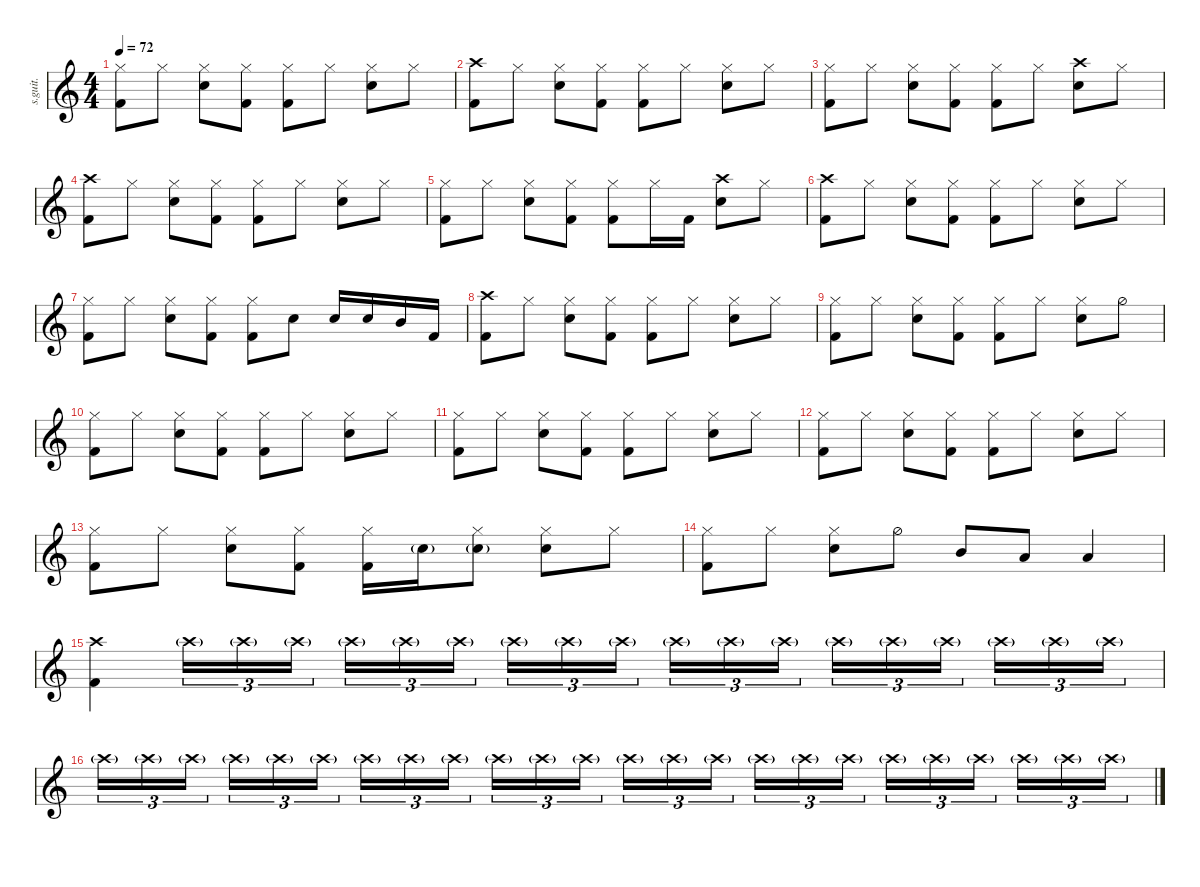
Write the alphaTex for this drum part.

\defaultSystemsLayout 4
\hideDynamics
\bracketExtendMode nobrackets
\track ("Ian Thomas" "s.guit.") {instrument percussion}
\staff {score}
\articulation defaults
\ts (4 4)
\tempo 72
\clef g2
\ks c
("Hi-Hat (closed)" "Kick (hit) 2").8{lyrics (0 "") lyrics (1 "") lyrics (2 "") lyrics (3 "") lyrics (4 "") dy f} "Hi-Hat (closed)".8{lyrics (0 "") lyrics (1 "") lyrics (2 "") lyrics (3 "") lyrics (4 "")} ("Hi-Hat (closed)" "Snare (hit) 2").8{lyrics (0 "") lyrics (1 "") lyrics (2 "") lyrics (3 "") lyrics (4 "")} ("Hi-Hat (closed)" "Kick (hit) 2").8{lyrics (0 "") lyrics (1 "") lyrics (2 "") lyrics (3 "") lyrics (4 "")} ("Hi-Hat (closed)" "Kick (hit) 2").8{lyrics (0 "") lyrics (1 "") lyrics (2 "") lyrics (3 "") lyrics (4 "")} "Hi-Hat (closed)".8{lyrics (0 "") lyrics (1 "") lyrics (2 "") lyrics (3 "") lyrics (4 "")} ("Hi-Hat (closed)" "Snare (hit) 2").8{lyrics (0 "") lyrics (1 "") lyrics (2 "") lyrics (3 "") lyrics (4 "")} "Hi-Hat (closed)".8{lyrics (0 "") lyrics (1 "") lyrics (2 "") lyrics (3 "") lyrics (4 "")} |
("Crash high (hit)" "Kick (hit) 2").8{lyrics (0 "") lyrics (1 "") lyrics (2 "") lyrics (3 "") lyrics (4 "")} "Hi-Hat (closed)".8{lyrics (0 "") lyrics (1 "") lyrics (2 "") lyrics (3 "") lyrics (4 "")} ("Hi-Hat (closed)" "Snare (hit) 2").8{lyrics (0 "") lyrics (1 "") lyrics (2 "") lyrics (3 "") lyrics (4 "")} ("Hi-Hat (closed)" "Kick (hit) 2").8{lyrics (0 "") lyrics (1 "") lyrics (2 "") lyrics (3 "") lyrics (4 "")} ("Hi-Hat (closed)" "Kick (hit) 2").8{lyrics (0 "") lyrics (1 "") lyrics (2 "") lyrics (3 "") lyrics (4 "")} "Hi-Hat (closed)".8{lyrics (0 "") lyrics (1 "") lyrics (2 "") lyrics (3 "") lyrics (4 "")} ("Hi-Hat (closed)" "Snare (hit) 2").8{lyrics (0 "") lyrics (1 "") lyrics (2 "") lyrics (3 "") lyrics (4 "")} "Hi-Hat (closed)".8{lyrics (0 "") lyrics (1 "") lyrics (2 "") lyrics (3 "") lyrics (4 "")} |
("Hi-Hat (closed)" "Kick (hit) 2").8{lyrics (0 "") lyrics (1 "") lyrics (2 "") lyrics (3 "") lyrics (4 "")} "Hi-Hat (closed)".8{lyrics (0 "") lyrics (1 "") lyrics (2 "") lyrics (3 "") lyrics (4 "")} ("Hi-Hat (closed)" "Snare (hit) 2").8{lyrics (0 "") lyrics (1 "") lyrics (2 "") lyrics (3 "") lyrics (4 "")} ("Hi-Hat (closed)" "Kick (hit) 2").8{lyrics (0 "") lyrics (1 "") lyrics (2 "") lyrics (3 "") lyrics (4 "")} ("Hi-Hat (closed)" "Kick (hit) 2").8{lyrics (0 "") lyrics (1 "") lyrics (2 "") lyrics (3 "") lyrics (4 "")} "Hi-Hat (closed)".8{lyrics (0 "") lyrics (1 "") lyrics (2 "") lyrics (3 "") lyrics (4 "")} ("Crash high (hit)" "Snare (hit) 2").8{lyrics (0 "") lyrics (1 "") lyrics (2 "") lyrics (3 "") lyrics (4 "")} "Hi-Hat (closed)".8{lyrics (0 "") lyrics (1 "") lyrics (2 "") lyrics (3 "") lyrics (4 "")} |
("Crash high (hit)" "Kick (hit) 2").8{lyrics (0 "") lyrics (1 "") lyrics (2 "") lyrics (3 "") lyrics (4 "")} "Hi-Hat (closed)".8{lyrics (0 "") lyrics (1 "") lyrics (2 "") lyrics (3 "") lyrics (4 "")} ("Hi-Hat (closed)" "Snare (hit) 2").8{lyrics (0 "") lyrics (1 "") lyrics (2 "") lyrics (3 "") lyrics (4 "")} ("Hi-Hat (closed)" "Kick (hit) 2").8{lyrics (0 "") lyrics (1 "") lyrics (2 "") lyrics (3 "") lyrics (4 "")} ("Hi-Hat (closed)" "Kick (hit) 2").8{lyrics (0 "") lyrics (1 "") lyrics (2 "") lyrics (3 "") lyrics (4 "")} "Hi-Hat (closed)".8{lyrics (0 "") lyrics (1 "") lyrics (2 "") lyrics (3 "") lyrics (4 "")} ("Hi-Hat (closed)" "Snare (hit) 2").8{lyrics (0 "") lyrics (1 "") lyrics (2 "") lyrics (3 "") lyrics (4 "")} "Hi-Hat (closed)".8{lyrics (0 "") lyrics (1 "") lyrics (2 "") lyrics (3 "") lyrics (4 "")} |
("Hi-Hat (closed)" "Kick (hit) 2").8{lyrics (0 "") lyrics (1 "") lyrics (2 "") lyrics (3 "") lyrics (4 "")} "Hi-Hat (closed)".8{lyrics (0 "") lyrics (1 "") lyrics (2 "") lyrics (3 "") lyrics (4 "")} ("Hi-Hat (closed)" "Snare (hit) 2").8{lyrics (0 "") lyrics (1 "") lyrics (2 "") lyrics (3 "") lyrics (4 "")} ("Hi-Hat (closed)" "Kick (hit) 2").8{lyrics (0 "") lyrics (1 "") lyrics (2 "") lyrics (3 "") lyrics (4 "")} ("Hi-Hat (closed)" "Kick (hit) 2").8{lyrics (0 "") lyrics (1 "") lyrics (2 "") lyrics (3 "") lyrics (4 "")} "Hi-Hat (closed)".16{lyrics (0 "") lyrics (1 "") lyrics (2 "") lyrics (3 "") lyrics (4 "")} "Kick (hit) 2".16{lyrics (0 "") lyrics (1 "") lyrics (2 "") lyrics (3 "") lyrics (4 "")} ("Crash high (hit)" "Snare (hit) 2").8{lyrics (0 "") lyrics (1 "") lyrics (2 "") lyrics (3 "") lyrics (4 "")} "Hi-Hat (closed)".8{lyrics (0 "") lyrics (1 "") lyrics (2 "") lyrics (3 "") lyrics (4 "")} |
("Crash high (hit)" "Kick (hit) 2").8{lyrics (0 "") lyrics (1 "") lyrics (2 "") lyrics (3 "") lyrics (4 "")} "Hi-Hat (closed)".8{lyrics (0 "") lyrics (1 "") lyrics (2 "") lyrics (3 "") lyrics (4 "")} ("Hi-Hat (closed)" "Snare (hit) 2").8{lyrics (0 "") lyrics (1 "") lyrics (2 "") lyrics (3 "") lyrics (4 "")} ("Hi-Hat (closed)" "Kick (hit) 2").8{lyrics (0 "") lyrics (1 "") lyrics (2 "") lyrics (3 "") lyrics (4 "")} ("Hi-Hat (closed)" "Kick (hit) 2").8{lyrics (0 "") lyrics (1 "") lyrics (2 "") lyrics (3 "") lyrics (4 "")} "Hi-Hat (closed)".8{lyrics (0 "") lyrics (1 "") lyrics (2 "") lyrics (3 "") lyrics (4 "")} ("Hi-Hat (closed)" "Snare (hit) 2").8{lyrics (0 "") lyrics (1 "") lyrics (2 "") lyrics (3 "") lyrics (4 "")} "Hi-Hat (closed)".8{lyrics (0 "") lyrics (1 "") lyrics (2 "") lyrics (3 "") lyrics (4 "")} |
("Hi-Hat (closed)" "Kick (hit) 2").8{lyrics (0 "") lyrics (1 "") lyrics (2 "") lyrics (3 "") lyrics (4 "")} "Hi-Hat (closed)".8{lyrics (0 "") lyrics (1 "") lyrics (2 "") lyrics (3 "") lyrics (4 "")} ("Hi-Hat (closed)" "Snare (hit) 2").8{lyrics (0 "") lyrics (1 "") lyrics (2 "") lyrics (3 "") lyrics (4 "")} ("Hi-Hat (closed)" "Kick (hit) 2").8{lyrics (0 "") lyrics (1 "") lyrics (2 "") lyrics (3 "") lyrics (4 "")} ("Hi-Hat (closed)" "Kick (hit) 2").8{lyrics (0 "") lyrics (1 "") lyrics (2 "") lyrics (3 "") lyrics (4 "")} "Snare (hit) 2".8{lyrics (0 "") lyrics (1 "") lyrics (2 "") lyrics (3 "") lyrics (4 "")} "Snare (hit) 2".16{lyrics (0 "") lyrics (1 "") lyrics (2 "") lyrics (3 "") lyrics (4 "")} "Snare (hit) 2".16{lyrics (0 "") lyrics (1 "") lyrics (2 "") lyrics (3 "") lyrics (4 "")} "Mid Tom (hit)".16{lyrics (0 "") lyrics (1 "") lyrics (2 "") lyrics (3 "") lyrics (4 "")} "Kick (hit) 2".16{lyrics (0 "") lyrics (1 "") lyrics (2 "") lyrics (3 "") lyrics (4 "")} |
("Crash high (hit)" "Kick (hit) 2").8{lyrics (0 "") lyrics (1 "") lyrics (2 "") lyrics (3 "") lyrics (4 "")} "Hi-Hat (closed)".8{lyrics (0 "") lyrics (1 "") lyrics (2 "") lyrics (3 "") lyrics (4 "")} ("Hi-Hat (closed)" "Snare (hit) 2").8{lyrics (0 "") lyrics (1 "") lyrics (2 "") lyrics (3 "") lyrics (4 "")} ("Hi-Hat (closed)" "Kick (hit) 2").8{lyrics (0 "") lyrics (1 "") lyrics (2 "") lyrics (3 "") lyrics (4 "")} ("Hi-Hat (closed)" "Kick (hit) 2").8{lyrics (0 "") lyrics (1 "") lyrics (2 "") lyrics (3 "") lyrics (4 "")} "Hi-Hat (closed)".8{lyrics (0 "") lyrics (1 "") lyrics (2 "") lyrics (3 "") lyrics (4 "")} ("Hi-Hat (closed)" "Snare (hit) 2").8{lyrics (0 "") lyrics (1 "") lyrics (2 "") lyrics (3 "") lyrics (4 "")} "Hi-Hat (closed)".8{lyrics (0 "") lyrics (1 "") lyrics (2 "") lyrics (3 "") lyrics (4 "")} |
("Hi-Hat (closed)" "Kick (hit) 2").8{lyrics (0 "") lyrics (1 "") lyrics (2 "") lyrics (3 "") lyrics (4 "")} "Hi-Hat (closed)".8{lyrics (0 "") lyrics (1 "") lyrics (2 "") lyrics (3 "") lyrics (4 "")} ("Hi-Hat (closed)" "Snare (hit) 2").8{lyrics (0 "") lyrics (1 "") lyrics (2 "") lyrics (3 "") lyrics (4 "")} ("Hi-Hat (closed)" "Kick (hit) 2").8{lyrics (0 "") lyrics (1 "") lyrics (2 "") lyrics (3 "") lyrics (4 "")} ("Hi-Hat (closed)" "Kick (hit) 2").8{lyrics (0 "") lyrics (1 "") lyrics (2 "") lyrics (3 "") lyrics (4 "")} "Hi-Hat (closed)".8{lyrics (0 "") lyrics (1 "") lyrics (2 "") lyrics (3 "") lyrics (4 "")} ("Hi-Hat (closed)" "Snare (hit) 2").8{lyrics (0 "") lyrics (1 "") lyrics (2 "") lyrics (3 "") lyrics (4 "")} "Hi-Hat (half)".8{lyrics (0 "") lyrics (1 "") lyrics (2 "") lyrics (3 "") lyrics (4 "")} |
("Hi-Hat (closed)" "Kick (hit) 2").8{lyrics (0 "") lyrics (1 "") lyrics (2 "") lyrics (3 "") lyrics (4 "")} "Hi-Hat (closed)".8{lyrics (0 "") lyrics (1 "") lyrics (2 "") lyrics (3 "") lyrics (4 "")} ("Hi-Hat (closed)" "Snare (hit) 2").8{lyrics (0 "") lyrics (1 "") lyrics (2 "") lyrics (3 "") lyrics (4 "")} ("Hi-Hat (closed)" "Kick (hit) 2").8{lyrics (0 "") lyrics (1 "") lyrics (2 "") lyrics (3 "") lyrics (4 "")} ("Hi-Hat (closed)" "Kick (hit) 2").8{lyrics (0 "") lyrics (1 "") lyrics (2 "") lyrics (3 "") lyrics (4 "")} "Hi-Hat (closed)".8{lyrics (0 "") lyrics (1 "") lyrics (2 "") lyrics (3 "") lyrics (4 "")} ("Hi-Hat (closed)" "Snare (hit) 2").8{lyrics (0 "") lyrics (1 "") lyrics (2 "") lyrics (3 "") lyrics (4 "")} "Hi-Hat (closed)".8{lyrics (0 "") lyrics (1 "") lyrics (2 "") lyrics (3 "") lyrics (4 "")} |
("Hi-Hat (closed)" "Kick (hit) 2").8{lyrics (0 "") lyrics (1 "") lyrics (2 "") lyrics (3 "") lyrics (4 "")} "Hi-Hat (closed)".8{lyrics (0 "") lyrics (1 "") lyrics (2 "") lyrics (3 "") lyrics (4 "")} ("Hi-Hat (closed)" "Snare (hit) 2").8{lyrics (0 "") lyrics (1 "") lyrics (2 "") lyrics (3 "") lyrics (4 "")} ("Hi-Hat (closed)" "Kick (hit) 2").8{lyrics (0 "") lyrics (1 "") lyrics (2 "") lyrics (3 "") lyrics (4 "")} ("Hi-Hat (closed)" "Kick (hit) 2").8{lyrics (0 "") lyrics (1 "") lyrics (2 "") lyrics (3 "") lyrics (4 "")} "Hi-Hat (closed)".8{lyrics (0 "") lyrics (1 "") lyrics (2 "") lyrics (3 "") lyrics (4 "")} ("Hi-Hat (closed)" "Snare (hit) 2").8{lyrics (0 "") lyrics (1 "") lyrics (2 "") lyrics (3 "") lyrics (4 "")} "Hi-Hat (closed)".8{lyrics (0 "") lyrics (1 "") lyrics (2 "") lyrics (3 "") lyrics (4 "")} |
("Hi-Hat (closed)" "Kick (hit) 2").8{lyrics (0 "") lyrics (1 "") lyrics (2 "") lyrics (3 "") lyrics (4 "")} "Hi-Hat (closed)".8{lyrics (0 "") lyrics (1 "") lyrics (2 "") lyrics (3 "") lyrics (4 "")} ("Hi-Hat (closed)" "Snare (hit) 2").8{lyrics (0 "") lyrics (1 "") lyrics (2 "") lyrics (3 "") lyrics (4 "")} ("Hi-Hat (closed)" "Kick (hit) 2").8{lyrics (0 "") lyrics (1 "") lyrics (2 "") lyrics (3 "") lyrics (4 "")} ("Hi-Hat (closed)" "Kick (hit) 2").8{lyrics (0 "") lyrics (1 "") lyrics (2 "") lyrics (3 "") lyrics (4 "")} "Hi-Hat (closed)".8{lyrics (0 "") lyrics (1 "") lyrics (2 "") lyrics (3 "") lyrics (4 "")} ("Hi-Hat (closed)" "Snare (hit) 2").8{lyrics (0 "") lyrics (1 "") lyrics (2 "") lyrics (3 "") lyrics (4 "")} "Hi-Hat (closed)".8{lyrics (0 "") lyrics (1 "") lyrics (2 "") lyrics (3 "") lyrics (4 "")} |
("Hi-Hat (closed)" "Kick (hit) 2").8{lyrics (0 "") lyrics (1 "") lyrics (2 "") lyrics (3 "") lyrics (4 "")} "Hi-Hat (closed)".8{lyrics (0 "") lyrics (1 "") lyrics (2 "") lyrics (3 "") lyrics (4 "")} ("Hi-Hat (closed)" "Snare (hit) 2").8{lyrics (0 "") lyrics (1 "") lyrics (2 "") lyrics (3 "") lyrics (4 "")} ("Hi-Hat (closed)" "Kick (hit) 2").8{lyrics (0 "") lyrics (1 "") lyrics (2 "") lyrics (3 "") lyrics (4 "")} ("Hi-Hat (closed)" "Kick (hit) 2").16{lyrics (0 "") lyrics (1 "") lyrics (2 "") lyrics (3 "") lyrics (4 "")} "Snare (hit) 2"{g}.16{lyrics (0 "") lyrics (1 "") lyrics (2 "") lyrics (3 "") lyrics (4 "")} ("Hi-Hat (closed)" "Snare (hit) 2"{g}).8{lyrics (0 "") lyrics (1 "") lyrics (2 "") lyrics (3 "") lyrics (4 "")} ("Hi-Hat (closed)" "Snare (hit) 2").8{lyrics (0 "") lyrics (1 "") lyrics (2 "") lyrics (3 "") lyrics (4 "")} "Hi-Hat (closed)".8{lyrics (0 "") lyrics (1 "") lyrics (2 "") lyrics (3 "") lyrics (4 "")} |
("Hi-Hat (closed)" "Kick (hit) 2").8{lyrics (0 "") lyrics (1 "") lyrics (2 "") lyrics (3 "") lyrics (4 "")} "Hi-Hat (closed)".8{lyrics (0 "") lyrics (1 "") lyrics (2 "") lyrics (3 "") lyrics (4 "")} ("Hi-Hat (closed)" "Snare (hit) 2").8{lyrics (0 "") lyrics (1 "") lyrics (2 "") lyrics (3 "") lyrics (4 "")} "Hi-Hat (half)".8{lyrics (0 "") lyrics (1 "") lyrics (2 "") lyrics (3 "") lyrics (4 "")} "Mid Tom (hit)".8{lyrics (0 "") lyrics (1 "") lyrics (2 "") lyrics (3 "") lyrics (4 "")} "Low Floor Tom (hit)".8{lyrics (0 "") lyrics (1 "") lyrics (2 "") lyrics (3 "") lyrics (4 "")} "Low Floor Tom (hit)".4{lyrics (0 "") lyrics (1 "") lyrics (2 "") lyrics (3 "") lyrics (4 "")} |
("Crash high (hit)" "Kick (hit) 2").4{lyrics (0 "") lyrics (1 "") lyrics (2 "") lyrics (3 "") lyrics (4 "")} "Crash high (hit)"{g}.16{tu (3 2) lyrics (0 "") lyrics (1 "") lyrics (2 "") lyrics (3 "") lyrics (4 "")} "Crash high (hit)"{g}.16{tu (3 2) lyrics (0 "") lyrics (1 "") lyrics (2 "") lyrics (3 "") lyrics (4 "")} "Crash high (hit)"{g}.16{tu (3 2) lyrics (0 "") lyrics (1 "") lyrics (2 "") lyrics (3 "") lyrics (4 "")} "Crash high (hit)"{g}.16{tu (3 2) lyrics (0 "") lyrics (1 "") lyrics (2 "") lyrics (3 "") lyrics (4 "")} "Crash high (hit)"{g}.16{tu (3 2) lyrics (0 "") lyrics (1 "") lyrics (2 "") lyrics (3 "") lyrics (4 "")} "Crash high (hit)"{g}.16{tu (3 2) lyrics (0 "") lyrics (1 "") lyrics (2 "") lyrics (3 "") lyrics (4 "")} "Crash high (hit)"{g}.16{tu (3 2) lyrics (0 "") lyrics (1 "") lyrics (2 "") lyrics (3 "") lyrics (4 "")} "Crash high (hit)"{g}.16{tu (3 2) lyrics (0 "") lyrics (1 "") lyrics (2 "") lyrics (3 "") lyrics (4 "")} "Crash high (hit)"{g}.16{tu (3 2) lyrics (0 "") lyrics (1 "") lyrics (2 "") lyrics (3 "") lyrics (4 "")} "Crash high (hit)"{g}.16{tu (3 2) lyrics (0 "") lyrics (1 "") lyrics (2 "") lyrics (3 "") lyrics (4 "")} "Crash high (hit)"{g}.16{tu (3 2) lyrics (0 "") lyrics (1 "") lyrics (2 "") lyrics (3 "") lyrics (4 "")} "Crash high (hit)"{g}.16{tu (3 2) lyrics (0 "") lyrics (1 "") lyrics (2 "") lyrics (3 "") lyrics (4 "")} "Crash high (hit)"{g}.16{tu (3 2) lyrics (0 "") lyrics (1 "") lyrics (2 "") lyrics (3 "") lyrics (4 "")} "Crash high (hit)"{g}.16{tu (3 2) lyrics (0 "") lyrics (1 "") lyrics (2 "") lyrics (3 "") lyrics (4 "")} "Crash high (hit)"{g}.16{tu (3 2) lyrics (0 "") lyrics (1 "") lyrics (2 "") lyrics (3 "") lyrics (4 "")} "Crash high (hit)"{g}.16{tu (3 2) lyrics (0 "") lyrics (1 "") lyrics (2 "") lyrics (3 "") lyrics (4 "")} "Crash high (hit)"{g}.16{tu (3 2) lyrics (0 "") lyrics (1 "") lyrics (2 "") lyrics (3 "") lyrics (4 "")} "Crash high (hit)"{g}.16{tu (3 2) lyrics (0 "") lyrics (1 "") lyrics (2 "") lyrics (3 "") lyrics (4 "")} |
"Crash high (hit)"{g}.16{tu (3 2) lyrics (0 "") lyrics (1 "") lyrics (2 "") lyrics (3 "") lyrics (4 "")} "Crash high (hit)"{g}.16{tu (3 2) lyrics (0 "") lyrics (1 "") lyrics (2 "") lyrics (3 "") lyrics (4 "")} "Crash high (hit)"{g}.16{tu (3 2) lyrics (0 "") lyrics (1 "") lyrics (2 "") lyrics (3 "") lyrics (4 "")} "Crash high (hit)"{g}.16{tu (3 2) lyrics (0 "") lyrics (1 "") lyrics (2 "") lyrics (3 "") lyrics (4 "")} "Crash high (hit)"{g}.16{tu (3 2) lyrics (0 "") lyrics (1 "") lyrics (2 "") lyrics (3 "") lyrics (4 "")} "Crash high (hit)"{g}.16{tu (3 2) lyrics (0 "") lyrics (1 "") lyrics (2 "") lyrics (3 "") lyrics (4 "")} "Crash high (hit)"{g}.16{tu (3 2) lyrics (0 "") lyrics (1 "") lyrics (2 "") lyrics (3 "") lyrics (4 "")} "Crash high (hit)"{g}.16{tu (3 2) lyrics (0 "") lyrics (1 "") lyrics (2 "") lyrics (3 "") lyrics (4 "")} "Crash high (hit)"{g}.16{tu (3 2) lyrics (0 "") lyrics (1 "") lyrics (2 "") lyrics (3 "") lyrics (4 "")} "Crash high (hit)"{g}.16{tu (3 2) lyrics (0 "") lyrics (1 "") lyrics (2 "") lyrics (3 "") lyrics (4 "")} "Crash high (hit)"{g}.16{tu (3 2) lyrics (0 "") lyrics (1 "") lyrics (2 "") lyrics (3 "") lyrics (4 "")} "Crash high (hit)"{g}.16{tu (3 2) lyrics (0 "") lyrics (1 "") lyrics (2 "") lyrics (3 "") lyrics (4 "")} "Crash high (hit)"{g}.16{tu (3 2) lyrics (0 "") lyrics (1 "") lyrics (2 "") lyrics (3 "") lyrics (4 "")} "Crash high (hit)"{g}.16{tu (3 2) lyrics (0 "") lyrics (1 "") lyrics (2 "") lyrics (3 "") lyrics (4 "")} "Crash high (hit)"{g}.16{tu (3 2) lyrics (0 "") lyrics (1 "") lyrics (2 "") lyrics (3 "") lyrics (4 "")} "Crash high (hit)"{g}.16{tu (3 2) lyrics (0 "") lyrics (1 "") lyrics (2 "") lyrics (3 "") lyrics (4 "")} "Crash high (hit)"{g}.16{tu (3 2) lyrics (0 "") lyrics (1 "") lyrics (2 "") lyrics (3 "") lyrics (4 "")} "Crash high (hit)"{g}.16{tu (3 2) lyrics (0 "") lyrics (1 "") lyrics (2 "") lyrics (3 "") lyrics (4 "")} "Crash high (hit)"{g}.16{tu (3 2) lyrics (0 "") lyrics (1 "") lyrics (2 "") lyrics (3 "") lyrics (4 "")} "Crash high (hit)"{g}.16{tu (3 2) lyrics (0 "") lyrics (1 "") lyrics (2 "") lyrics (3 "") lyrics (4 "")} "Crash high (hit)"{g}.16{tu (3 2) lyrics (0 "") lyrics (1 "") lyrics (2 "") lyrics (3 "") lyrics (4 "")} "Crash high (hit)"{g}.16{tu (3 2) lyrics (0 "") lyrics (1 "") lyrics (2 "") lyrics (3 "") lyrics (4 "")} "Crash high (hit)"{g}.16{tu (3 2) lyrics (0 "") lyrics (1 "") lyrics (2 "") lyrics (3 "") lyrics (4 "")} "Crash high (hit)"{g}.16{tu (3 2) lyrics (0 "") lyrics (1 "") lyrics (2 "") lyrics (3 "") lyrics (4 "")}
